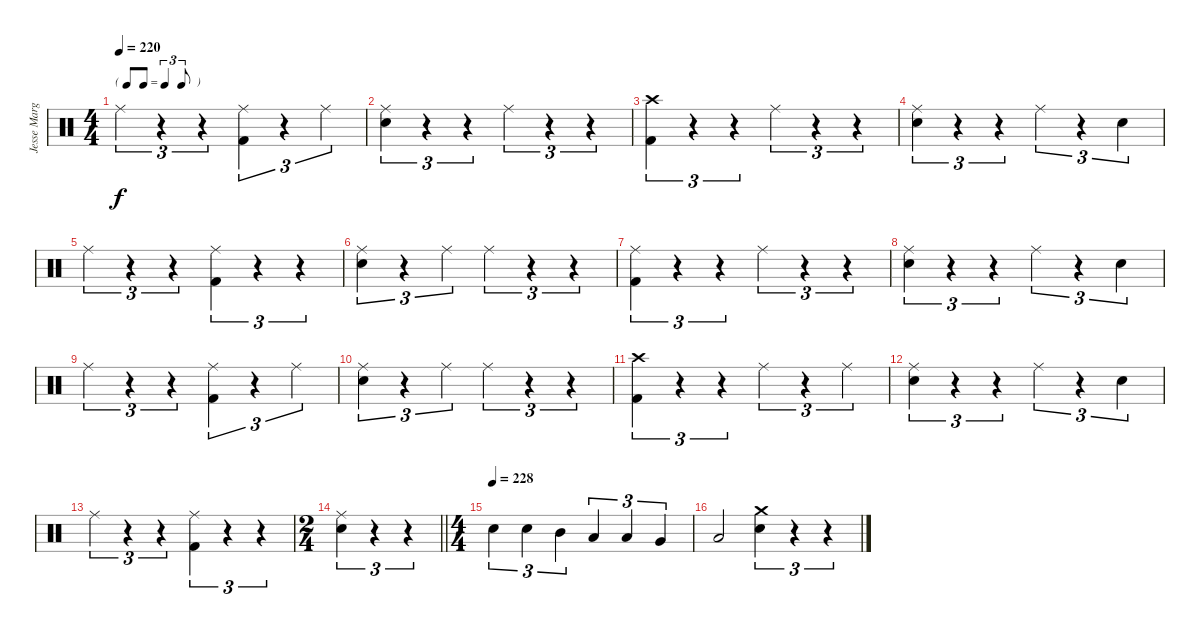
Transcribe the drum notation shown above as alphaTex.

\track ("Jesse Margera" "Jesse Marg") {instrument percussion}
\staff {score}
\articulation defaults
\ts (4 4)
\tf triplet8th
\tempo 220
\clef neutral
\ks c "Ride (middle)".4{tu (3 2) dy f}
r.4{tu (3 2)} r.4{tu (3 2)} ("Ride (middle)" "Kick (hit) 2").4{tu (3 2)} r.4{tu (3 2)} "Ride (middle)".4{tu (3 2)} |
("Ride (middle)" "Electric Snare (hit)").4{tu (3 2)} r.4{tu (3 2)} r.4{tu (3 2)} "Ride (middle)".4{tu (3 2)} r.4{tu (3 2)} r.4{tu (3 2)} |
("Crash high (hit)" "Kick (hit) 2").4{tu (3 2)} r.4{tu (3 2)} r.4{tu (3 2)} "Ride (middle)".4{tu (3 2)} r.4{tu (3 2)} r.4{tu (3 2)} |
("Ride (middle)" "Electric Snare (hit)").4{tu (3 2)} r.4{tu (3 2)} r.4{tu (3 2)} "Ride (middle)".4{tu (3 2)} r.4{tu (3 2)} "Electric Snare (hit)".4{tu (3 2)} |
"Ride (middle)".4{tu (3 2)} r.4{tu (3 2)} r.4{tu (3 2)} ("Ride (middle)" "Kick (hit) 2").4{tu (3 2)} r.4{tu (3 2)} r.4{tu (3 2)} |
("Ride (middle)" "Electric Snare (hit)").4{tu (3 2)} r.4{tu (3 2)} "Ride (middle)".4{tu (3 2)} "Ride (middle)".4{tu (3 2)} r.4{tu (3 2)} r.4{tu (3 2)} |
("Ride (middle)" "Kick (hit) 2").4{tu (3 2)} r.4{tu (3 2)} r.4{tu (3 2)} "Ride (middle)".4{tu (3 2)} r.4{tu (3 2)} r.4{tu (3 2)} |
("Ride (middle)" "Electric Snare (hit)").4{tu (3 2)} r.4{tu (3 2)} r.4{tu (3 2)} "Ride (middle)".4{tu (3 2)} r.4{tu (3 2)} "Electric Snare (hit)".4{tu (3 2)} |
"Ride (middle)".4{tu (3 2)} r.4{tu (3 2)} r.4{tu (3 2)} ("Ride (middle)" "Kick (hit) 2").4{tu (3 2)} r.4{tu (3 2)} "Ride (middle)".4{tu (3 2)} |
("Ride (middle)" "Electric Snare (hit)").4{tu (3 2)} r.4{tu (3 2)} "Ride (middle)".4{tu (3 2)} "Ride (middle)".4{tu (3 2)} r.4{tu (3 2)} r.4{tu (3 2)} |
("Crash high (hit)" "Kick (hit) 2").4{tu (3 2)} r.4{tu (3 2)} r.4{tu (3 2)} "Ride (middle)".4{tu (3 2)} r.4{tu (3 2)} "Ride (middle)".4{tu (3 2)} |
("Ride (middle)" "Electric Snare (hit)").4{tu (3 2)} r.4{tu (3 2)} r.4{tu (3 2)} "Ride (middle)".4{tu (3 2)} r.4{tu (3 2)} "Electric Snare (hit)".4{tu (3 2)} |
"Ride (middle)".4{tu (3 2)} r.4{tu (3 2)} r.4{tu (3 2)} ("Ride (middle)" "Kick (hit) 2").4{tu (3 2)} r.4{tu (3 2)} r.4{tu (3 2)} |
\ts (2 4)
\barLineRight lightlight
("Ride (middle)" "Electric Snare (hit)").4{tu (3 2)} r.4{tu (3 2)} r.4{tu (3 2)} |
\ts (4 4)
\section ("" "")
\tempo (228)
"Electric Snare (hit)".4{tu (3 2)} "Electric Snare (hit)".4{tu (3 2)} "Mid Tom (hit)".4{tu (3 2)} "Low Tom (hit)".4{tu (3 2)} "Low Tom (hit)".4{tu (3 2)} "Very Low Tom (hit)".4{tu (3 2)} |
"Low Floor Tom (hit)".2 ("Crash medium (hit)" "Electric Snare (hit)").4{tu (3 2)} r.4{tu (3 2)} r.4{tu (3 2)}
